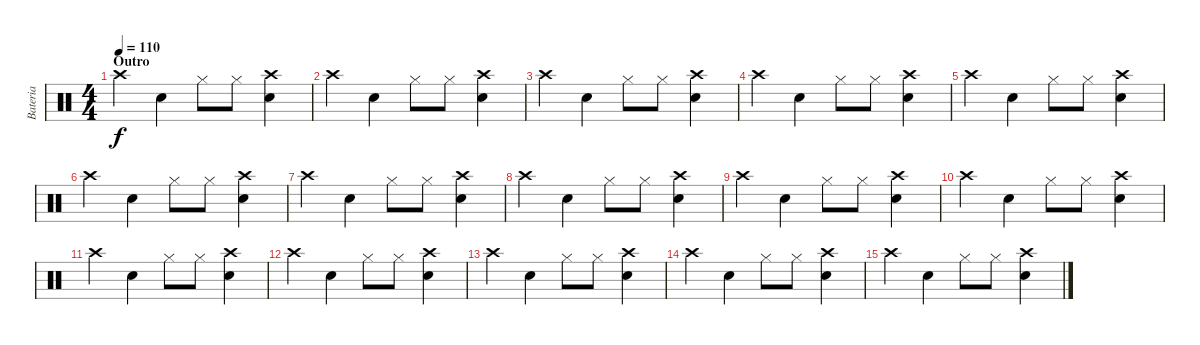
\track ("Bateria" "Bateria") {instrument percussion}
\staff {score}
\articulation defaults
\ts (4 4)
\section ("" "Outro")
\tempo 110
\clef neutral
\ks c "Crash high (hit)".4{dy f} "Electric Snare (hit)".4 "Hi-Hat (closed)".8 "Hi-Hat (closed)".8
("Crash high (hit)" "Electric Snare (hit)").4 |
"Crash high (hit)".4 "Electric Snare (hit)".4 "Hi-Hat (closed)".8 "Hi-Hat (closed)".8 ("Crash high (hit)" "Electric Snare (hit)").4 |
"Crash high (hit)".4 "Electric Snare (hit)".4 "Hi-Hat (closed)".8 "Hi-Hat (closed)".8 ("Crash high (hit)" "Electric Snare (hit)").4 |
"Crash high (hit)".4 "Electric Snare (hit)".4 "Hi-Hat (closed)".8 "Hi-Hat (closed)".8 ("Crash high (hit)" "Electric Snare (hit)").4 |
"Crash high (hit)".4 "Electric Snare (hit)".4 "Hi-Hat (closed)".8 "Hi-Hat (closed)".8 ("Crash high (hit)" "Electric Snare (hit)").4 |
"Crash high (hit)".4 "Electric Snare (hit)".4 "Hi-Hat (closed)".8 "Hi-Hat (closed)".8 ("Crash high (hit)" "Electric Snare (hit)").4 |
"Crash high (hit)".4 "Electric Snare (hit)".4 "Hi-Hat (closed)".8 "Hi-Hat (closed)".8 ("Crash high (hit)" "Electric Snare (hit)").4 |
"Crash high (hit)".4 "Electric Snare (hit)".4 "Hi-Hat (closed)".8 "Hi-Hat (closed)".8 ("Crash high (hit)" "Electric Snare (hit)").4 |
"Crash high (hit)".4 "Electric Snare (hit)".4 "Hi-Hat (closed)".8 "Hi-Hat (closed)".8 ("Crash high (hit)" "Electric Snare (hit)").4 |
"Crash high (hit)".4 "Electric Snare (hit)".4 "Hi-Hat (closed)".8 "Hi-Hat (closed)".8 ("Crash high (hit)" "Electric Snare (hit)").4 |
"Crash high (hit)".4 "Electric Snare (hit)".4 "Hi-Hat (closed)".8 "Hi-Hat (closed)".8 ("Crash high (hit)" "Electric Snare (hit)").4 |
"Crash high (hit)".4{volume 0} "Electric Snare (hit)".4 "Hi-Hat (closed)".8 "Hi-Hat (closed)".8 ("Crash high (hit)" "Electric Snare (hit)").4 |
"Crash high (hit)".4 "Electric Snare (hit)".4 "Hi-Hat (closed)".8 "Hi-Hat (closed)".8 ("Crash high (hit)" "Electric Snare (hit)").4 |
"Crash high (hit)".4 "Electric Snare (hit)".4 "Hi-Hat (closed)".8 "Hi-Hat (closed)".8 ("Crash high (hit)" "Electric Snare (hit)").4 |
"Crash high (hit)".4 "Electric Snare (hit)".4 "Hi-Hat (closed)".8 "Hi-Hat (closed)".8 ("Crash high (hit)" "Electric Snare (hit)").4
